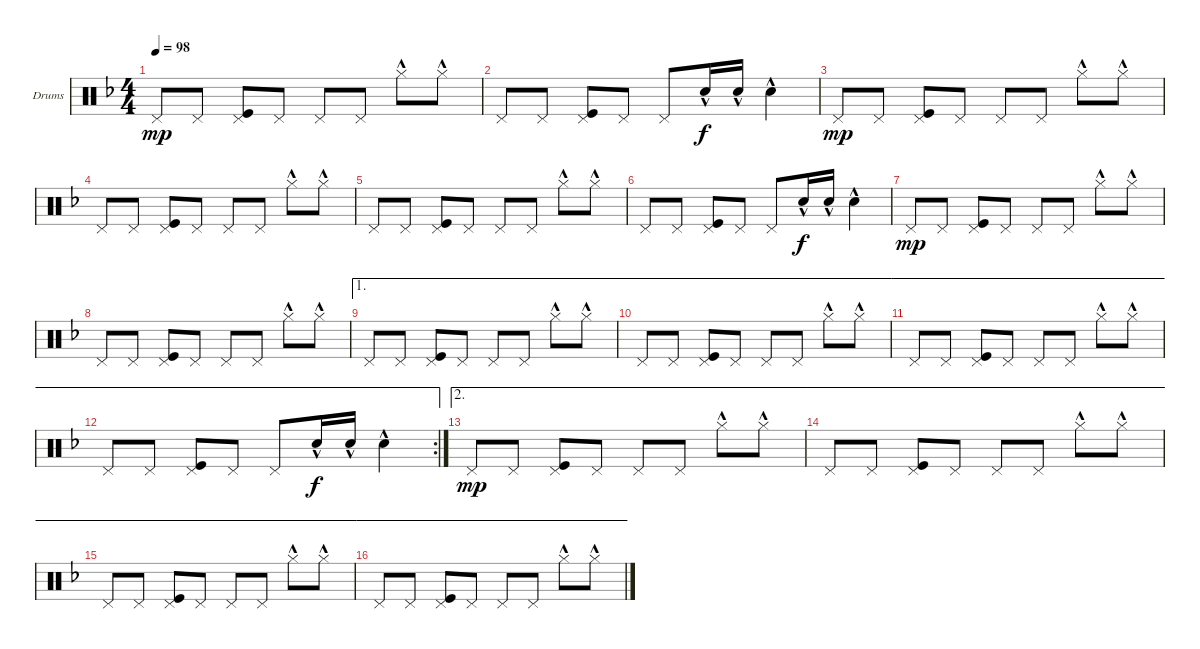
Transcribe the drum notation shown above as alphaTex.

\defaultSystemsLayout 4
\bracketExtendMode groupsimilarinstruments
\firstSystemTrackNameOrientation horizontal
\otherSystemsTrackNameOrientation horizontal
\track ("Drumkit" "Drums") {instrument percussion}
\staff {score}
\articulation defaults
\ts (4 4)
\tempo 98
\clef neutral
\scale
0.333333
\ks f "Pedal Hi-Hat (hit)".8{dy mp} "Pedal Hi-Hat (hit)".8
("Pedal Hi-Hat (hit)" "Kick (hit)").8 "Pedal Hi-Hat (hit)".8 "Pedal Hi-Hat (hit)".8 "Pedal Hi-Hat (hit)".8 "Hi-Hat (closed)"{hac}.8 "Hi-Hat (closed)"{hac}.8 |
\scale
0.333333 "Pedal Hi-Hat (hit)".8 "Pedal Hi-Hat (hit)".8 ("Pedal Hi-Hat (hit)" "Kick (hit)").8 "Pedal Hi-Hat (hit)".8 "Pedal Hi-Hat (hit)".8 "Snare (hit) 2"{hac}.16{dy f} "Snare (hit) 2"{hac}.16 "Snare (hit) 2"{hac}.4 |
\scale
0.333333 "Pedal Hi-Hat (hit)".8{dy mp} "Pedal Hi-Hat (hit)".8 ("Pedal Hi-Hat (hit)" "Kick (hit)").8 "Pedal Hi-Hat (hit)".8 "Pedal Hi-Hat (hit)".8 "Pedal Hi-Hat (hit)".8 "Hi-Hat (closed)"{hac}.8 "Hi-Hat (closed)"{hac}.8 |
\scale
0.333333 "Pedal Hi-Hat (hit)".8 "Pedal Hi-Hat (hit)".8 ("Pedal Hi-Hat (hit)" "Kick (hit)").8 "Pedal Hi-Hat (hit)".8 "Pedal Hi-Hat (hit)".8 "Pedal Hi-Hat (hit)".8 "Hi-Hat (closed)"{hac}.8 "Hi-Hat (closed)"{hac}.8 |
\scale
0.333333 "Pedal Hi-Hat (hit)".8 "Pedal Hi-Hat (hit)".8 ("Pedal Hi-Hat (hit)" "Kick (hit)").8 "Pedal Hi-Hat (hit)".8 "Pedal Hi-Hat (hit)".8 "Pedal Hi-Hat (hit)".8 "Hi-Hat (closed)"{hac}.8 "Hi-Hat (closed)"{hac}.8 |
\scale
0.333333 "Pedal Hi-Hat (hit)".8 "Pedal Hi-Hat (hit)".8 ("Pedal Hi-Hat (hit)" "Kick (hit)").8 "Pedal Hi-Hat (hit)".8 "Pedal Hi-Hat (hit)".8 "Snare (hit) 2"{hac}.16{dy f} "Snare (hit) 2"{hac}.16 "Snare (hit) 2"{hac}.4 |
\scale
0.333333 "Pedal Hi-Hat (hit)".8{dy mp} "Pedal Hi-Hat (hit)".8 ("Pedal Hi-Hat (hit)" "Kick (hit)").8 "Pedal Hi-Hat (hit)".8 "Pedal Hi-Hat (hit)".8 "Pedal Hi-Hat (hit)".8 "Hi-Hat (closed)"{hac}.8 "Hi-Hat (closed)"{hac}.8 |
\scale
0.333333 "Pedal Hi-Hat (hit)".8 "Pedal Hi-Hat (hit)".8 ("Pedal Hi-Hat (hit)" "Kick (hit)").8 "Pedal Hi-Hat (hit)".8 "Pedal Hi-Hat (hit)".8 "Pedal Hi-Hat (hit)".8 "Hi-Hat (closed)"{hac}.8 "Hi-Hat (closed)"{hac}.8 |
\ae 1
\scale
0.333333 "Pedal Hi-Hat (hit)".8 "Pedal Hi-Hat (hit)".8 ("Pedal Hi-Hat (hit)" "Kick (hit)").8 "Pedal Hi-Hat (hit)".8 "Pedal Hi-Hat (hit)".8 "Pedal Hi-Hat (hit)".8 "Hi-Hat (closed)"{hac}.8 "Hi-Hat (closed)"{hac}.8 |
\ae 1
\scale
0.333333 "Pedal Hi-Hat (hit)".8 "Pedal Hi-Hat (hit)".8 ("Pedal Hi-Hat (hit)" "Kick (hit)").8 "Pedal Hi-Hat (hit)".8 "Pedal Hi-Hat (hit)".8 "Pedal Hi-Hat (hit)".8 "Hi-Hat (closed)"{hac}.8 "Hi-Hat (closed)"{hac}.8 |
\ae 1
\scale
0.333333 "Pedal Hi-Hat (hit)".8 "Pedal Hi-Hat (hit)".8 ("Pedal Hi-Hat (hit)" "Kick (hit)").8 "Pedal Hi-Hat (hit)".8 "Pedal Hi-Hat (hit)".8 "Pedal Hi-Hat (hit)".8 "Hi-Hat (closed)"{hac}.8 "Hi-Hat (closed)"{hac}.8 |
\ae 1
\rc 2
\scale
0.356322 "Pedal Hi-Hat (hit)".8 "Pedal Hi-Hat (hit)".8 ("Pedal Hi-Hat (hit)" "Kick (hit)").8 "Pedal Hi-Hat (hit)".8 "Pedal Hi-Hat (hit)".8 "Snare (hit) 2"{hac}.16{dy f} "Snare (hit) 2"{hac}.16 "Snare (hit) 2"{hac}.4 |
\ae 2
\scale
0.321839 "Pedal Hi-Hat (hit)".8{dy mp} "Pedal Hi-Hat (hit)".8 ("Pedal Hi-Hat (hit)" "Kick (hit)").8 "Pedal Hi-Hat (hit)".8 "Pedal Hi-Hat (hit)".8 "Pedal Hi-Hat (hit)".8 "Hi-Hat (closed)"{hac}.8 "Hi-Hat (closed)"{hac}.8 |
\ae 2
\scale
0.321839 "Pedal Hi-Hat (hit)".8 "Pedal Hi-Hat (hit)".8 ("Pedal Hi-Hat (hit)" "Kick (hit)").8 "Pedal Hi-Hat (hit)".8 "Pedal Hi-Hat (hit)".8 "Pedal Hi-Hat (hit)".8 "Hi-Hat (closed)"{hac}.8 "Hi-Hat (closed)"{hac}.8 |
\ae 2
\scale
0.333333 "Pedal Hi-Hat (hit)".8 "Pedal Hi-Hat (hit)".8 ("Pedal Hi-Hat (hit)" "Kick (hit)").8 "Pedal Hi-Hat (hit)".8 "Pedal Hi-Hat (hit)".8 "Pedal Hi-Hat (hit)".8 "Hi-Hat (closed)"{hac}.8 "Hi-Hat (closed)"{hac}.8 |
\ae 2
\scale
0.333333 "Pedal Hi-Hat (hit)".8 "Pedal Hi-Hat (hit)".8 ("Pedal Hi-Hat (hit)" "Kick (hit)").8 "Pedal Hi-Hat (hit)".8 "Pedal Hi-Hat (hit)".8 "Pedal Hi-Hat (hit)".8 "Hi-Hat (closed)"{hac}.8 "Hi-Hat (closed)"{hac}.8
